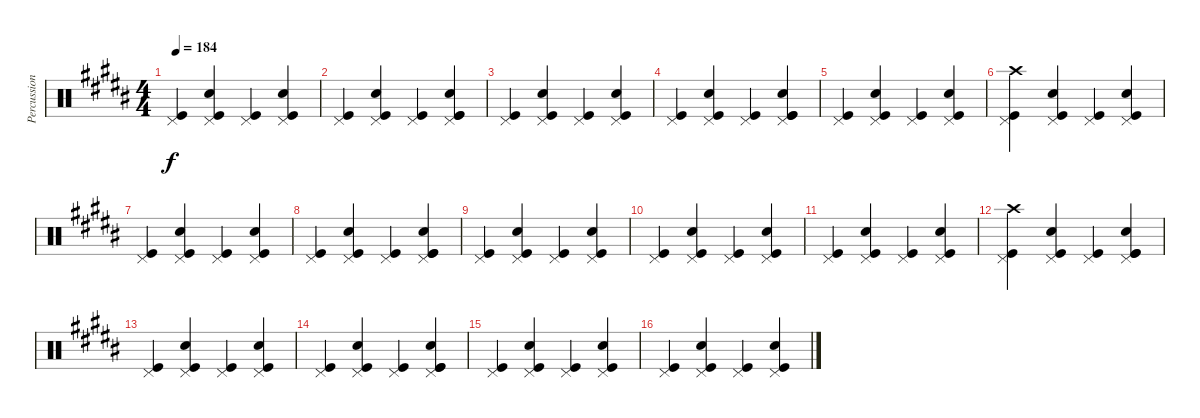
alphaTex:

\track ("Percussion" "Percussion") {instrument percussion}
\staff {score}
\articulation defaults
\ts (4 4)
\tempo 184
\clef neutral
\ks b
("Pedal Hi-Hat (hit)" "Kick (hit)").4{dy f} ("Kick (hit)" "Pedal Hi-Hat (hit)" "Snare (hit) 2").4 ("Kick (hit)" "Pedal Hi-Hat (hit)").4 ("Kick (hit)" "Pedal Hi-Hat (hit)" "Snare (hit) 2").4 |
("Kick (hit)" "Pedal Hi-Hat (hit)").4 ("Kick (hit)" "Pedal Hi-Hat (hit)" "Snare (hit) 2").4 ("Kick (hit)" "Pedal Hi-Hat (hit)").4 ("Kick (hit)" "Pedal Hi-Hat (hit)" "Kick (hit)" "Snare (hit) 2").4 |
("Kick (hit)" "Pedal Hi-Hat (hit)").4 ("Kick (hit)" "Pedal Hi-Hat (hit)" "Snare (hit) 2").4 ("Kick (hit)" "Pedal Hi-Hat (hit)").4 ("Kick (hit)" "Pedal Hi-Hat (hit)" "Snare (hit) 2").4 |
("Kick (hit)" "Pedal Hi-Hat (hit)").4 ("Kick (hit)" "Pedal Hi-Hat (hit)" "Snare (hit) 2").4 ("Kick (hit)" "Pedal Hi-Hat (hit)").4 ("Kick (hit)" "Pedal Hi-Hat (hit)" "Kick (hit)" "Snare (hit) 2").4 |
("Kick (hit)" "Pedal Hi-Hat (hit)").4 ("Kick (hit)" "Pedal Hi-Hat (hit)" "Snare (hit) 2").4 ("Kick (hit)" "Pedal Hi-Hat (hit)").4 ("Kick (hit)" "Pedal Hi-Hat (hit)" "Snare (hit) 2").4 |
("Kick (hit)" "Pedal Hi-Hat (hit)" "Crash high (hit)").4 ("Kick (hit)" "Pedal Hi-Hat (hit)" "Snare (hit) 2").4 ("Kick (hit)" "Pedal Hi-Hat (hit)").4 ("Kick (hit)" "Pedal Hi-Hat (hit)" "Snare (hit) 2").4 |
("Pedal Hi-Hat (hit)" "Kick (hit)").4 ("Kick (hit)" "Pedal Hi-Hat (hit)" "Snare (hit) 2").4 ("Kick (hit)" "Pedal Hi-Hat (hit)").4 ("Kick (hit)" "Pedal Hi-Hat (hit)" "Snare (hit) 2").4 |
("Kick (hit)" "Pedal Hi-Hat (hit)").4 ("Kick (hit)" "Pedal Hi-Hat (hit)" "Snare (hit) 2").4 ("Kick (hit)" "Pedal Hi-Hat (hit)").4 ("Kick (hit)" "Pedal Hi-Hat (hit)" "Kick (hit)" "Snare (hit) 2").4 |
("Kick (hit)" "Pedal Hi-Hat (hit)").4 ("Kick (hit)" "Pedal Hi-Hat (hit)" "Snare (hit) 2").4 ("Kick (hit)" "Pedal Hi-Hat (hit)").4 ("Kick (hit)" "Pedal Hi-Hat (hit)" "Snare (hit) 2").4 |
("Kick (hit)" "Pedal Hi-Hat (hit)").4 ("Kick (hit)" "Pedal Hi-Hat (hit)" "Snare (hit) 2").4 ("Kick (hit)" "Pedal Hi-Hat (hit)").4 ("Kick (hit)" "Pedal Hi-Hat (hit)" "Snare (hit) 2").4 |
("Pedal Hi-Hat (hit)" "Kick (hit)").4 ("Kick (hit)" "Pedal Hi-Hat (hit)" "Snare (hit) 2").4 ("Kick (hit)" "Pedal Hi-Hat (hit)").4 ("Kick (hit)" "Pedal Hi-Hat (hit)" "Snare (hit) 2").4 |
("Kick (hit)" "Pedal Hi-Hat (hit)" "Crash high (hit)").4 ("Kick (hit)" "Pedal Hi-Hat (hit)" "Snare (hit) 2").4 ("Kick (hit)" "Pedal Hi-Hat (hit)").4 ("Kick (hit)" "Pedal Hi-Hat (hit)" "Kick (hit)" "Snare (hit) 2").4 |
("Kick (hit)" "Pedal Hi-Hat (hit)").4 ("Kick (hit)" "Pedal Hi-Hat (hit)" "Snare (hit) 2").4 ("Kick (hit)" "Pedal Hi-Hat (hit)").4 ("Kick (hit)" "Pedal Hi-Hat (hit)" "Snare (hit) 2").4 |
("Kick (hit)" "Pedal Hi-Hat (hit)").4 ("Kick (hit)" "Pedal Hi-Hat (hit)" "Snare (hit) 2").4 ("Kick (hit)" "Pedal Hi-Hat (hit)").4 ("Kick (hit)" "Pedal Hi-Hat (hit)" "Kick (hit)" "Snare (hit) 2").4 |
("Kick (hit)" "Pedal Hi-Hat (hit)").4 ("Kick (hit)" "Pedal Hi-Hat (hit)" "Snare (hit) 2").4 ("Kick (hit)" "Pedal Hi-Hat (hit)").4 ("Kick (hit)" "Pedal Hi-Hat (hit)" "Snare (hit) 2").4 |
("Kick (hit)" "Pedal Hi-Hat (hit)").4 ("Kick (hit)" "Pedal Hi-Hat (hit)" "Snare (hit) 2").4 ("Kick (hit)" "Pedal Hi-Hat (hit)").4 ("Kick (hit)" "Pedal Hi-Hat (hit)" "Snare (hit) 2").4
